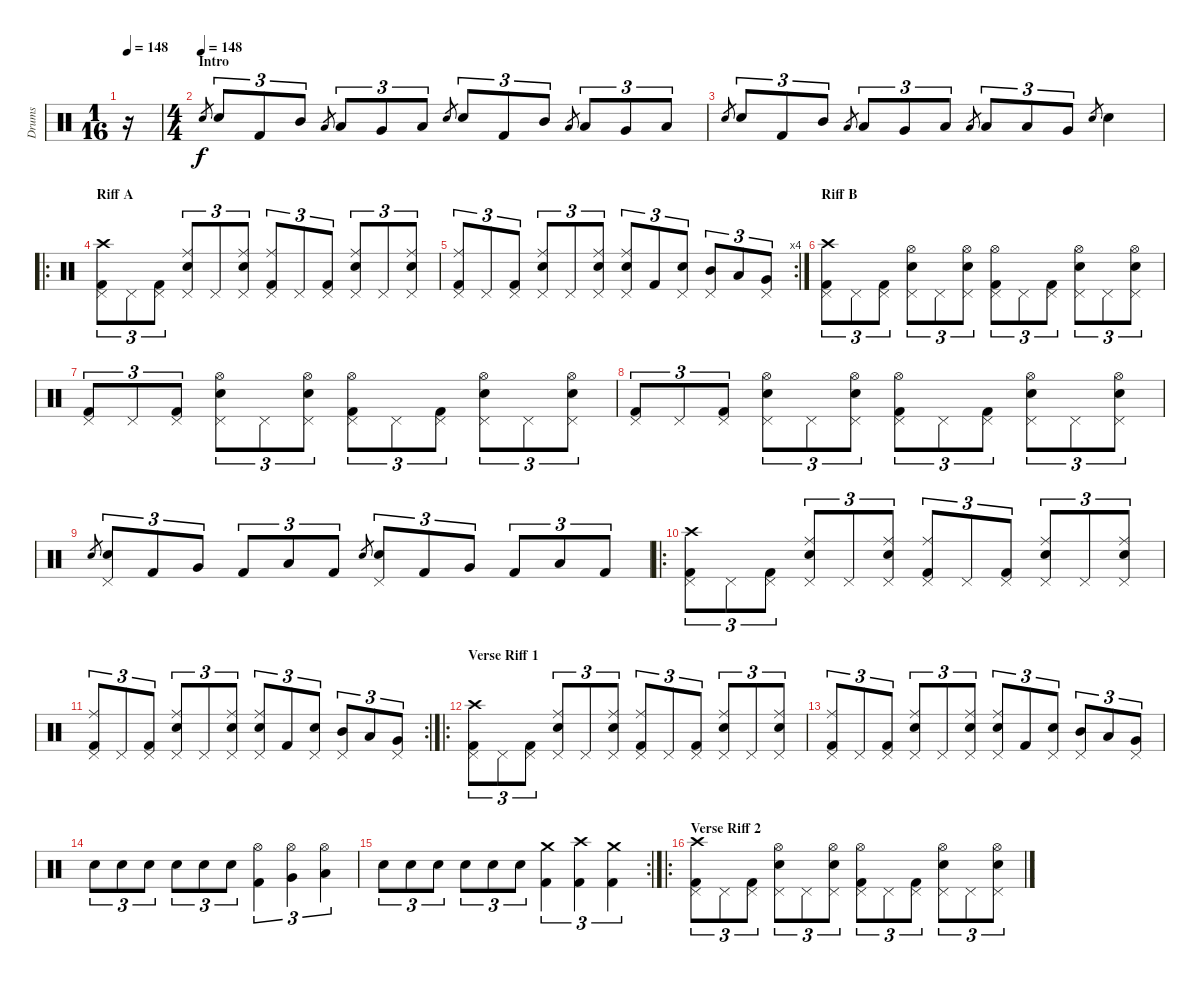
\track ("Drums" "Drums") {instrument percussion}
\staff {score}
\articulation defaults
\ts (1 16)
\tempo 148
\clef neutral
\ks c
r.16{dy f} |
\ts (4 4)
\section ("" "Intro")
\tempo (148)
"Snare (hit) 2".8{gr} "Snare (hit) 2".8{tu (3 2)} "Kick (hit) 2".8{tu (3 2)} "Mid Tom (hit)".8{tu (3 2)} "Low Tom (hit)".8{gr} "Low Tom (hit)".8{tu (3 2)} "Very Low Tom (hit)".8{tu (3 2)} "Low Floor Tom (hit)".8{tu (3 2)} "Snare (hit) 2".8{gr} "Snare (hit) 2".8{tu (3 2)} "Kick (hit) 2".8{tu (3 2)} "Mid Tom (hit)".8{tu (3 2)} "Low Tom (hit)".8{gr} "Low Tom (hit)".8{tu (3 2)} "Very Low Tom (hit)".8{tu (3 2)} "Low Floor Tom (hit)".8{tu (3 2)} |
"Snare (hit) 2".8{gr} "Snare (hit) 2".8{tu (3 2)} "Kick (hit) 2".8{tu (3 2)} "Mid Tom (hit)".8{tu (3 2)} "Low Tom (hit)".8{gr} "Low Tom (hit)".8{tu (3 2)} "Very Low Tom (hit)".8{tu (3 2)} "Low Floor Tom (hit)".8{tu (3 2)} "Low Tom (hit)".8{gr} "Low Tom (hit)".8{tu (3 2)} "Low Tom (hit)".8{tu (3 2)} "Very Low Tom (hit)".8{tu (3 2)} "Snare (hit) 2".8{gr} "Snare (hit) 2".4 |
\ro
\section ("" "Riff A")
("Kick (hit) 2" "Pedal Hi-Hat (hit)" "Crash high (hit)").8{tu (3 2)} "Pedal Hi-Hat (hit)".8{tu (3 2)} ("Kick (hit) 2" "Pedal Hi-Hat (hit)").8{tu (3 2)} ("Snare (hit) 2" "Pedal Hi-Hat (hit)" "Ride (middle)").8{tu (3 2)} "Pedal Hi-Hat (hit)".8{tu (3 2)} ("Snare (hit) 2" "Pedal Hi-Hat (hit)" "Ride (middle)").8{tu (3 2)} ("Kick (hit) 2" "Pedal Hi-Hat (hit)" "Ride (middle)").8{tu (3 2)} "Pedal Hi-Hat (hit)".8{tu (3 2)} ("Kick (hit) 2" "Pedal Hi-Hat (hit)").8{tu (3 2)} ("Snare (hit) 2" "Pedal Hi-Hat (hit)" "Ride (middle)").8{tu (3 2)} "Pedal Hi-Hat (hit)".8{tu (3 2)} ("Snare (hit) 2" "Pedal Hi-Hat (hit)" "Ride (middle)").8{tu (3 2)} |
\rc 4
("Kick (hit) 2" "Pedal Hi-Hat (hit)" "Ride (middle)").8{tu (3 2)} "Pedal Hi-Hat (hit)".8{tu (3 2)} ("Kick (hit) 2" "Pedal Hi-Hat (hit)").8{tu (3 2)} ("Snare (hit) 2" "Pedal Hi-Hat (hit)" "Ride (middle)").8{tu (3 2)} "Pedal Hi-Hat (hit)".8{tu (3 2)} ("Snare (hit) 2" "Pedal Hi-Hat (hit)" "Ride (middle)").8{tu (3 2)} ("Snare (hit) 2" "Pedal Hi-Hat (hit)" "Ride (middle)").8{tu (3 2)} "Kick (hit) 2".8{tu (3 2)} ("Snare (hit) 2" "Pedal Hi-Hat (hit)").8{tu (3 2)} ("Mid Tom (hit)" "Pedal Hi-Hat (hit)").8{tu (3 2)} "Low Tom (hit)".8{tu (3 2)} ("Very Low Tom (hit)" "Pedal Hi-Hat (hit)").8{tu (3 2)} |
\section ("" "Riff B")
("Kick (hit) 2" "Pedal Hi-Hat (hit)" "Crash high (hit)").8{tu (3 2)} "Pedal Hi-Hat (hit)".8{tu (3 2)} ("Kick (hit) 2" "Pedal Hi-Hat (hit)").8{tu (3 2)} ("Snare (hit) 2" "Pedal Hi-Hat (hit)" "Hi-Hat (open)").8{tu (3 2)} "Pedal Hi-Hat (hit)".8{tu (3 2)} ("Snare (hit) 2" "Pedal Hi-Hat (hit)" "Hi-Hat (open)").8{tu (3 2)} ("Kick (hit) 2" "Pedal Hi-Hat (hit)" "Hi-Hat (open)").8{tu (3 2)} "Pedal Hi-Hat (hit)".8{tu (3 2)} ("Kick (hit) 2" "Pedal Hi-Hat (hit)").8{tu (3 2)} ("Snare (hit) 2" "Pedal Hi-Hat (hit)" "Hi-Hat (open)").8{tu (3 2)} "Pedal Hi-Hat (hit)".8{tu (3 2)} ("Snare (hit) 2" "Pedal Hi-Hat (hit)" "Hi-Hat (open)").8{tu (3 2)} |
("Kick (hit) 2" "Pedal Hi-Hat (hit)").8{tu (3 2)} "Pedal Hi-Hat (hit)".8{tu (3 2)} ("Kick (hit) 2" "Pedal Hi-Hat (hit)").8{tu (3 2)} ("Snare (hit) 2" "Pedal Hi-Hat (hit)" "Hi-Hat (open)").8{tu (3 2)} "Pedal Hi-Hat (hit)".8{tu (3 2)} ("Snare (hit) 2" "Pedal Hi-Hat (hit)" "Hi-Hat (open)").8{tu (3 2)} ("Kick (hit) 2" "Pedal Hi-Hat (hit)" "Hi-Hat (open)").8{tu (3 2)} "Pedal Hi-Hat (hit)".8{tu (3 2)} ("Kick (hit) 2" "Pedal Hi-Hat (hit)").8{tu (3 2)} ("Snare (hit) 2" "Pedal Hi-Hat (hit)" "Hi-Hat (open)").8{tu (3 2)} "Pedal Hi-Hat (hit)".8{tu (3 2)} ("Snare (hit) 2" "Pedal Hi-Hat (hit)" "Hi-Hat (open)").8{tu (3 2)} |
("Kick (hit) 2" "Pedal Hi-Hat (hit)").8{tu (3 2)} "Pedal Hi-Hat (hit)".8{tu (3 2)} ("Kick (hit) 2" "Pedal Hi-Hat (hit)").8{tu (3 2)} ("Snare (hit) 2" "Pedal Hi-Hat (hit)" "Hi-Hat (open)").8{tu (3 2)} "Pedal Hi-Hat (hit)".8{tu (3 2)} ("Snare (hit) 2" "Pedal Hi-Hat (hit)" "Hi-Hat (open)").8{tu (3 2)} ("Kick (hit) 2" "Pedal Hi-Hat (hit)" "Hi-Hat (open)").8{tu (3 2)} "Pedal Hi-Hat (hit)".8{tu (3 2)} ("Kick (hit) 2" "Pedal Hi-Hat (hit)").8{tu (3 2)} ("Snare (hit) 2" "Pedal Hi-Hat (hit)" "Hi-Hat (open)").8{tu (3 2)} "Pedal Hi-Hat (hit)".8{tu (3 2)} ("Snare (hit) 2" "Pedal Hi-Hat (hit)" "Hi-Hat (open)").8{tu (3 2)} |
"Snare (hit) 2".8{gr} ("Snare (hit) 2" "Pedal Hi-Hat (hit)").8{tu (3 2)} "Kick (hit) 2".8{tu (3 2)} "Very Low Tom (hit)".8{tu (3 2)} "Kick (hit) 2".8{tu (3 2)} "Low Floor Tom (hit)".8{tu (3 2)} "Kick (hit) 2".8{tu (3 2)} "Snare (hit) 2".8{gr} ("Snare (hit) 2" "Pedal Hi-Hat (hit)").8{tu (3 2)} "Kick (hit) 2".8{tu (3 2)} "Very Low Tom (hit)".8{tu (3 2)} "Kick (hit) 2".8{tu (3 2)} "Low Floor Tom (hit)".8{tu (3 2)} "Kick (hit) 2".8{tu (3 2)} |
\ro
("Kick (hit) 2" "Pedal Hi-Hat (hit)" "Crash high (hit)").8{tu (3 2)} "Pedal Hi-Hat (hit)".8{tu (3 2)} ("Kick (hit) 2" "Pedal Hi-Hat (hit)").8{tu (3 2)} ("Snare (hit) 2" "Pedal Hi-Hat (hit)" "Ride (middle)").8{tu (3 2)} "Pedal Hi-Hat (hit)".8{tu (3 2)} ("Snare (hit) 2" "Pedal Hi-Hat (hit)" "Ride (middle)").8{tu (3 2)} ("Kick (hit) 2" "Pedal Hi-Hat (hit)" "Ride (middle)").8{tu (3 2)} "Pedal Hi-Hat (hit)".8{tu (3 2)} ("Kick (hit) 2" "Pedal Hi-Hat (hit)").8{tu (3 2)} ("Snare (hit) 2" "Pedal Hi-Hat (hit)" "Ride (middle)").8{tu (3 2)} "Pedal Hi-Hat (hit)".8{tu (3 2)} ("Snare (hit) 2" "Pedal Hi-Hat (hit)" "Ride (middle)").8{tu (3 2)} |
\rc 2
("Kick (hit) 2" "Pedal Hi-Hat (hit)" "Ride (middle)").8{tu (3 2)} "Pedal Hi-Hat (hit)".8{tu (3 2)} ("Kick (hit) 2" "Pedal Hi-Hat (hit)").8{tu (3 2)} ("Snare (hit) 2" "Pedal Hi-Hat (hit)" "Ride (middle)").8{tu (3 2)} "Pedal Hi-Hat (hit)".8{tu (3 2)} ("Snare (hit) 2" "Pedal Hi-Hat (hit)" "Ride (middle)").8{tu (3 2)} ("Snare (hit) 2" "Pedal Hi-Hat (hit)" "Ride (middle)").8{tu (3 2)} "Kick (hit) 2".8{tu (3 2)} ("Snare (hit) 2" "Pedal Hi-Hat (hit)").8{tu (3 2)} ("Mid Tom (hit)" "Pedal Hi-Hat (hit)").8{tu (3 2)} "Low Tom (hit)".8{tu (3 2)} ("Very Low Tom (hit)" "Pedal Hi-Hat (hit)").8{tu (3 2)} |
\ro
\section ("" "Verse Riff 1")
("Kick (hit) 2" "Pedal Hi-Hat (hit)" "Crash high (hit)").8{tu (3 2)} "Pedal Hi-Hat (hit)".8{tu (3 2)} ("Kick (hit) 2" "Pedal Hi-Hat (hit)").8{tu (3 2)} ("Snare (hit) 2" "Pedal Hi-Hat (hit)" "Ride (middle)").8{tu (3 2)} "Pedal Hi-Hat (hit)".8{tu (3 2)} ("Snare (hit) 2" "Pedal Hi-Hat (hit)" "Ride (middle)").8{tu (3 2)} ("Kick (hit) 2" "Pedal Hi-Hat (hit)" "Ride (middle)").8{tu (3 2)} "Pedal Hi-Hat (hit)".8{tu (3 2)} ("Kick (hit) 2" "Pedal Hi-Hat (hit)").8{tu (3 2)} ("Snare (hit) 2" "Pedal Hi-Hat (hit)" "Ride (middle)").8{tu (3 2)} "Pedal Hi-Hat (hit)".8{tu (3 2)} ("Snare (hit) 2" "Pedal Hi-Hat (hit)" "Ride (middle)").8{tu (3 2)} |
("Kick (hit) 2" "Pedal Hi-Hat (hit)" "Ride (middle)").8{tu (3 2)} "Pedal Hi-Hat (hit)".8{tu (3 2)} ("Kick (hit) 2" "Pedal Hi-Hat (hit)").8{tu (3 2)} ("Snare (hit) 2" "Pedal Hi-Hat (hit)" "Ride (middle)").8{tu (3 2)} "Pedal Hi-Hat (hit)".8{tu (3 2)} ("Snare (hit) 2" "Pedal Hi-Hat (hit)" "Ride (middle)").8{tu (3 2)} ("Snare (hit) 2" "Pedal Hi-Hat (hit)" "Ride (middle)").8{tu (3 2)} "Kick (hit) 2".8{tu (3 2)} ("Snare (hit) 2" "Pedal Hi-Hat (hit)").8{tu (3 2)} ("Mid Tom (hit)" "Pedal Hi-Hat (hit)").8{tu (3 2)} "Low Tom (hit)".8{tu (3 2)} ("Very Low Tom (hit)" "Pedal Hi-Hat (hit)").8{tu (3 2)} |
"Snare (hit) 2".8{tu (3 2)} "Snare (hit) 2".8{tu (3 2)} "Snare (hit) 2".8{tu (3 2)} "Snare (hit) 2".8{tu (3 2)} "Snare (hit) 2".8{tu (3 2)} "Snare (hit) 2".8{tu (3 2)} ("Kick (hit) 2" "Hi-Hat (open)").4{tu (3 2)} ("Very Low Tom (hit)" "Hi-Hat (open)").4{tu (3 2)} ("Low Floor Tom (hit)" "Hi-Hat (open)").4{tu (3 2)} |
\rc 2 "Snare (hit) 2".8{tu (3 2)} "Snare (hit) 2".8{tu (3 2)} "Snare (hit) 2".8{tu (3 2)} "Snare (hit) 2".8{tu (3 2)} "Snare (hit) 2".8{tu (3 2)} "Snare (hit) 2".8{tu (3 2)}
("Kick (hit) 2" "Crash medium (hit)").4{tu (3 2)} ("Kick (hit) 2" "Crash high (hit)").4{tu (3 2)} ("Kick (hit) 2" "Crash medium (hit)").4{tu (3 2)} |
\ro
\section ("" "Verse Riff 2")
("Kick (hit) 2" "Pedal Hi-Hat (hit)" "Crash high (hit)").8{tu (3 2)} "Pedal Hi-Hat (hit)".8{tu (3 2)} ("Kick (hit) 2" "Pedal Hi-Hat (hit)").8{tu (3 2)} ("Snare (hit) 2" "Pedal Hi-Hat (hit)" "Hi-Hat (open)").8{tu (3 2)} "Pedal Hi-Hat (hit)".8{tu (3 2)} ("Snare (hit) 2" "Pedal Hi-Hat (hit)" "Hi-Hat (open)").8{tu (3 2)} ("Kick (hit) 2" "Pedal Hi-Hat (hit)" "Hi-Hat (open)").8{tu (3 2)} "Pedal Hi-Hat (hit)".8{tu (3 2)} ("Kick (hit) 2" "Pedal Hi-Hat (hit)").8{tu (3 2)} ("Snare (hit) 2" "Pedal Hi-Hat (hit)" "Hi-Hat (open)").8{tu (3 2)} "Pedal Hi-Hat (hit)".8{tu (3 2)} ("Snare (hit) 2" "Pedal Hi-Hat (hit)" "Hi-Hat (open)").8{tu (3 2)}
